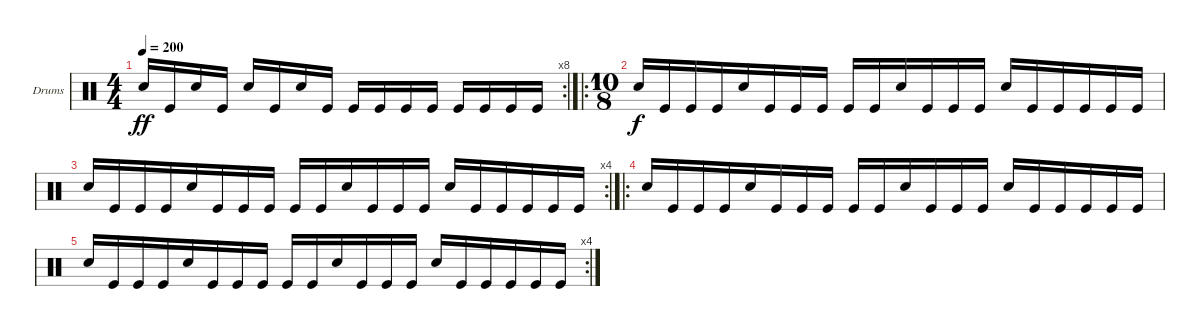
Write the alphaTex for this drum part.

\defaultSystemsLayout 4
\bracketExtendMode groupsimilarinstruments
\firstSystemTrackNameOrientation horizontal
\otherSystemsTrackNameOrientation horizontal
\track ("Corpse Blaster" "Drums") {instrument percussion}
\staff {score}
\articulation defaults
\rc 8
\ts (4 4)
\tempo 200
\clef neutral
\ks c "Snare (hit) 2".16{dy ff} "Kick (hit)".16 "Snare (hit) 2".16 "Kick (hit)".16 "Snare (hit) 2".16 "Kick (hit)".16 "Snare (hit) 2".16 "Kick (hit)".16 "Kick (hit)".16 "Kick (hit)".16 "Kick (hit)".16 "Kick (hit)".16 "Kick (hit)".16 "Kick (hit)".16 "Kick (hit)".16 "Kick (hit)".16
|
\ro
\ts (10 8)
"Snare (hit) 2".16{dy f} "Kick (hit)".16 "Kick (hit)".16 "Kick (hit)".16 "Snare (hit) 2".16 "Kick (hit)".16 "Kick (hit)".16 "Kick (hit)".16 "Kick (hit)".16 "Kick (hit)".16 "Snare (hit) 2".16 "Kick (hit)".16 "Kick (hit)".16 "Kick (hit)".16 "Snare (hit) 2".16 "Kick (hit)".16 "Kick (hit)".16 "Kick (hit)".16 "Kick (hit)".16 "Kick (hit)".16 |
\rc 4 "Snare (hit) 2".16 "Kick (hit)".16 "Kick (hit)".16 "Kick (hit)".16 "Snare (hit) 2".16 "Kick (hit)".16 "Kick (hit)".16 "Kick (hit)".16 "Kick (hit)".16 "Kick (hit)".16 "Snare (hit) 2".16 "Kick (hit)".16 "Kick (hit)".16 "Kick (hit)".16 "Snare (hit) 2".16 "Kick (hit)".16 "Kick (hit)".16 "Kick (hit)".16 "Kick (hit)".16 "Kick (hit)".16
|
\ro "Snare (hit) 2".16 "Kick (hit)".16 "Kick (hit)".16 "Kick (hit)".16 "Snare (hit) 2".16 "Kick (hit)".16 "Kick (hit)".16 "Kick (hit)".16 "Kick (hit)".16 "Kick (hit)".16 "Snare (hit) 2".16 "Kick (hit)".16 "Kick (hit)".16 "Kick (hit)".16 "Snare (hit) 2".16 "Kick (hit)".16 "Kick (hit)".16 "Kick (hit)".16 "Kick (hit)".16 "Kick (hit)".16
|
\rc 4 "Snare (hit) 2".16 "Kick (hit)".16 "Kick (hit)".16 "Kick (hit)".16 "Snare (hit) 2".16 "Kick (hit)".16 "Kick (hit)".16 "Kick (hit)".16 "Kick (hit)".16 "Kick (hit)".16 "Snare (hit) 2".16 "Kick (hit)".16 "Kick (hit)".16 "Kick (hit)".16 "Snare (hit) 2".16 "Kick (hit)".16 "Kick (hit)".16 "Kick (hit)".16 "Kick (hit)".16 "Kick (hit)".16
